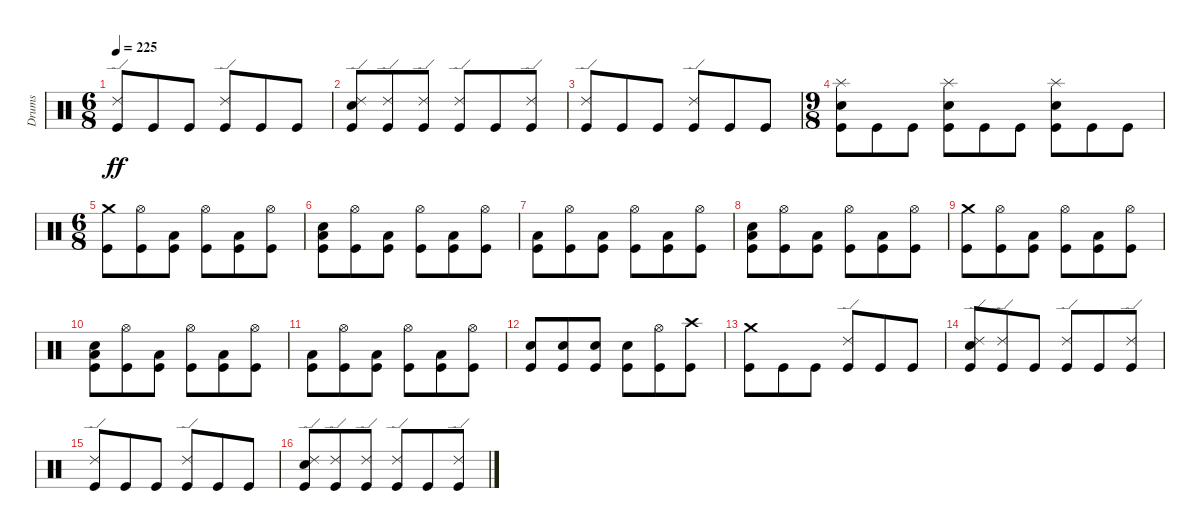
\track ("Drums" "Drums") {instrument percussion}
\staff {score}
\articulation defaults
\ts (6 8)
\tempo 225
\clef neutral
\ks c
("Kick (hit)" "Ride (edge) 2").8{dy ff} "Kick (hit)".8 "Kick (hit)".8 ("Kick (hit)" "Ride (edge) 2").8 "Kick (hit)".8 "Kick (hit)".8 |
("Kick (hit)" "Snare (hit) 2" "Ride (edge) 2").8 ("Kick (hit)" "Ride (edge) 2").8 ("Kick (hit)" "Ride (edge) 2").8 ("Kick (hit)" "Ride (edge) 2").8 "Kick (hit)".8 ("Kick (hit)" "Ride (edge) 2").8 |
("Kick (hit)" "Ride (edge) 2").8 "Kick (hit)".8 "Kick (hit)".8 ("Kick (hit)" "Ride (edge) 2").8 "Kick (hit)".8 "Kick (hit)".8 |
\ts (9 8)
("Kick (hit)" "Snare (hit) 2" "Splash (hit)").8 "Kick (hit)".8 "Kick (hit)".8 ("Kick (hit)" "Snare (hit) 2" "Splash (hit)").8 "Kick (hit)".8 "Kick (hit)".8 ("Kick (hit)" "Snare (hit) 2" "Splash (hit)").8 "Kick (hit)".8 "Kick (hit)".8 |
\ts (6 8)
("Kick (hit)" "Crash medium (hit)").8 ("Kick (hit)" "Hi-Hat (open)").8 ("Kick (hit)" "Low Tom (hit)").8 ("Kick (hit)" "Hi-Hat (open)").8 ("Kick (hit)" "Low Tom (hit)").8 ("Kick (hit)" "Hi-Hat (open)").8 |
("Kick (hit)" "Snare (hit) 2" "Low Tom (hit)").8 ("Kick (hit)" "Hi-Hat (open)").8 ("Kick (hit)" "Low Tom (hit)").8 ("Kick (hit)" "Hi-Hat (open)").8 ("Kick (hit)" "Low Tom (hit)").8 ("Kick (hit)" "Hi-Hat (open)").8 |
("Kick (hit)" "Low Tom (hit)").8 ("Kick (hit)" "Hi-Hat (open)").8 ("Kick (hit)" "Low Tom (hit)").8 ("Kick (hit)" "Hi-Hat (open)").8 ("Kick (hit)" "Low Tom (hit)").8 ("Kick (hit)" "Hi-Hat (open)").8 |
("Kick (hit)" "Snare (hit) 2" "Low Tom (hit)").8 ("Kick (hit)" "Hi-Hat (open)").8 ("Kick (hit)" "Low Tom (hit)").8 ("Kick (hit)" "Hi-Hat (open)").8 ("Kick (hit)" "Low Tom (hit)").8 ("Kick (hit)" "Hi-Hat (open)").8 |
("Kick (hit)" "Crash medium (hit)").8 ("Kick (hit)" "Hi-Hat (open)").8 ("Kick (hit)" "Low Tom (hit)").8 ("Kick (hit)" "Hi-Hat (open)").8 ("Kick (hit)" "Low Tom (hit)").8 ("Kick (hit)" "Hi-Hat (open)").8 |
("Kick (hit)" "Snare (hit) 2" "Low Tom (hit)").8 ("Kick (hit)" "Hi-Hat (open)").8 ("Kick (hit)" "Low Tom (hit)").8 ("Kick (hit)" "Hi-Hat (open)").8 ("Kick (hit)" "Low Tom (hit)").8 ("Kick (hit)" "Hi-Hat (open)").8 |
("Kick (hit)" "Low Tom (hit)").8 ("Kick (hit)" "Hi-Hat (open)").8 ("Kick (hit)" "Low Tom (hit)").8 ("Kick (hit)" "Hi-Hat (open)").8 ("Kick (hit)" "Low Tom (hit)").8 ("Kick (hit)" "Hi-Hat (open)").8 |
("Kick (hit)" "Snare (hit) 2").8 ("Kick (hit)" "Snare (hit) 2").8 ("Kick (hit)" "Snare (hit) 2").8 ("Kick (hit)" "Snare (hit) 2").8 ("Kick (hit)" "Hi-Hat (open)").8 ("Kick (hit)" "Crash high (hit)").8 |
("Kick (hit)" "Crash medium (hit)").8 "Kick (hit)".8 "Kick (hit)".8 ("Kick (hit)" "Ride (edge) 2").8 "Kick (hit)".8 "Kick (hit)".8 |
("Kick (hit)" "Snare (hit) 2" "Ride (edge) 2").8 ("Kick (hit)" "Ride (edge) 2").8 "Kick (hit)".8 ("Kick (hit)" "Ride (edge) 2").8 "Kick (hit)".8 ("Kick (hit)" "Ride (edge) 2").8 |
("Kick (hit)" "Ride (edge) 2").8 "Kick (hit)".8 "Kick (hit)".8 ("Kick (hit)" "Ride (edge) 2").8 "Kick (hit)".8 "Kick (hit)".8 |
("Kick (hit)" "Snare (hit) 2" "Ride (edge) 2").8 ("Kick (hit)" "Ride (edge) 2").8 ("Kick (hit)" "Ride (edge) 2").8 ("Kick (hit)" "Ride (edge) 2").8 "Kick (hit)".8 ("Kick (hit)" "Ride (edge) 2").8
